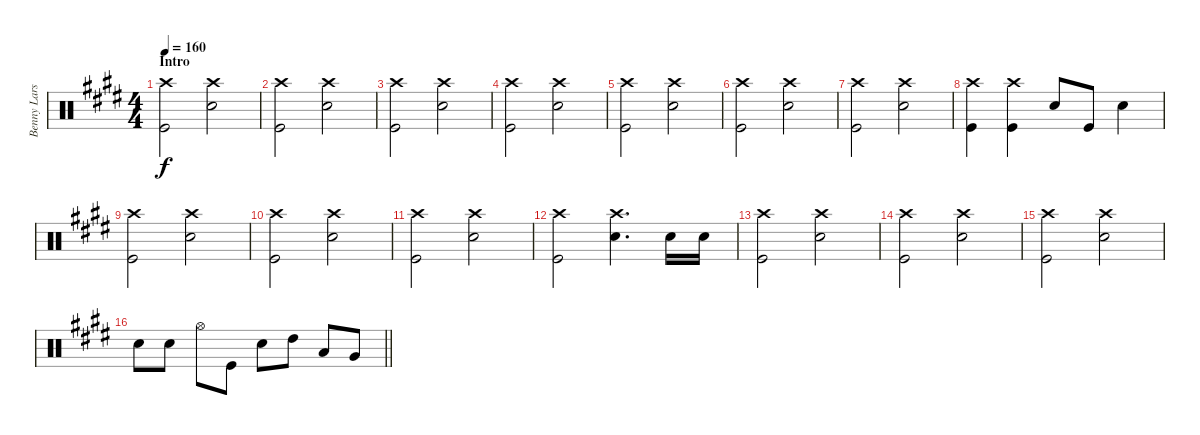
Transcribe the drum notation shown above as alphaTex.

\track ("Benny Larsson" "Benny Lars") {instrument percussion}
\staff {score}
\articulation defaults
\ts (4 4)
\section ("" "Intro")
\tempo 160
\clef neutral
\ks e
("Crash high (hit)" "Kick (hit)").2{dy f} ("Crash high (hit)" "Snare (hit) 2").2 |
("Crash high (hit)" "Kick (hit)").2 ("Crash high (hit)" "Snare (hit) 2").2 |
("Crash high (hit)" "Kick (hit)").2 ("Crash high (hit)" "Snare (hit) 2").2 |
("Crash high (hit)" "Kick (hit)").2 ("Crash high (hit)" "Snare (hit) 2").2 |
("Crash high (hit)" "Kick (hit)").2 ("Crash high (hit)" "Snare (hit) 2").2 |
("Crash high (hit)" "Kick (hit)").2 ("Crash high (hit)" "Snare (hit) 2").2 |
("Crash high (hit)" "Kick (hit)").2 ("Crash high (hit)" "Snare (hit) 2").2 |
("Crash high (hit)" "Kick (hit)").4 ("Crash high (hit)" "Kick (hit)").4 "Snare (hit) 2".8 "Kick (hit)".8 "Snare (hit) 2".4 |
("Crash high (hit)" "Kick (hit)").2 ("Crash high (hit)" "Snare (hit) 2").2 |
("Crash high (hit)" "Kick (hit)").2 ("Crash high (hit)" "Snare (hit) 2").2 |
("Crash high (hit)" "Kick (hit)").2 ("Crash high (hit)" "Snare (hit) 2").2 |
("Crash high (hit)" "Kick (hit)").2 ("Crash high (hit)" "Snare (hit) 2").4{d} "Snare (hit) 2".16 "Snare (hit) 2".16 |
("Crash high (hit)" "Kick (hit)").2 ("Crash high (hit)" "Snare (hit) 2").2 |
("Crash high (hit)" "Kick (hit)").2 ("Crash high (hit)" "Snare (hit) 2").2 |
("Crash high (hit)" "Kick (hit)").2 ("Crash high (hit)" "Snare (hit) 2").2 |
\barLineRight lightlight "Snare (hit) 2".8 "Snare (hit) 2".8 "Hi-Hat (open)".8 "Kick (hit)".8 "Snare (hit) 2".8 "High Tom (hit)".8 "Low Tom (hit)".8 "Very Low Tom (hit)".8
